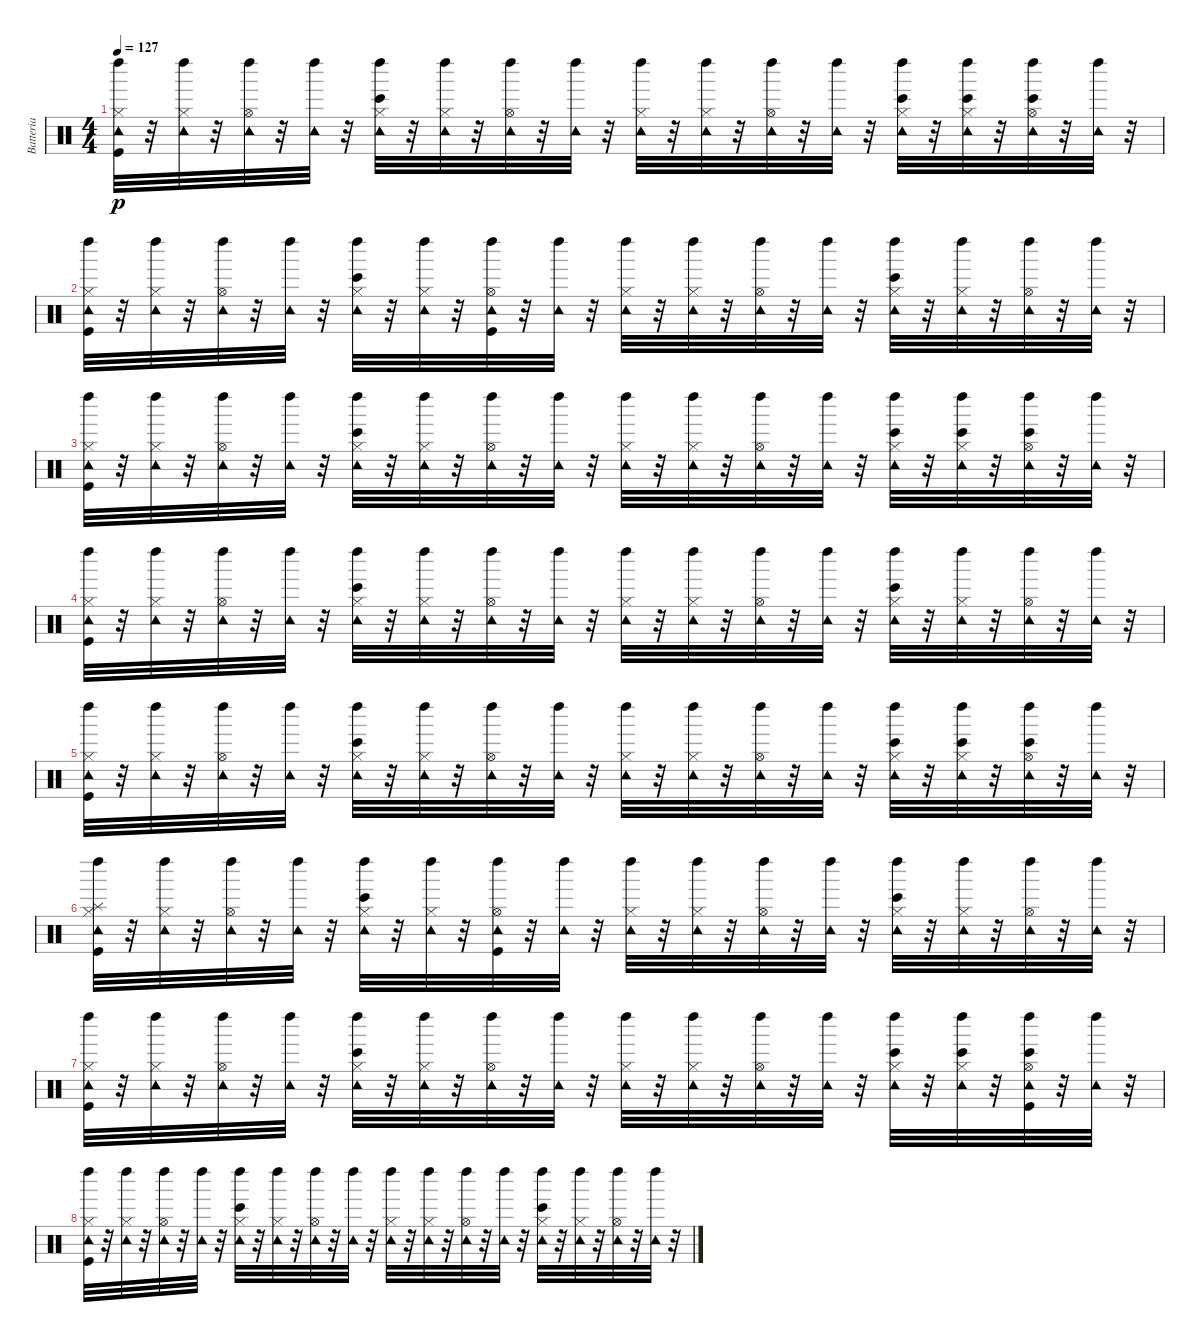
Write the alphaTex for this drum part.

\track ("Batteria" "Batteria") {instrument percussion}
\staff {score}
\articulation defaults
\ts (4 4)
\tempo 127
\clef neutral
\ks c
("Kick (hit)" "Hi-Hat (closed)" "Tambourine (hit)" "Left Maraca (hit)").32{dy p} r.32 ("Hi-Hat (closed)" "Tambourine (hit)" "Left Maraca (hit)").32 r.32 ("Hi-Hat (open)" "Tambourine (hit)" "Left Maraca (hit)").32 r.32 ("Tambourine (hit)" "Left Maraca (hit)").32 r.32 ("Bongo High (hit)" "Hi-Hat (closed)" "Tambourine (hit)" "Left Maraca (hit)").32 r.32 ("Hi-Hat (closed)" "Tambourine (hit)" "Left Maraca (hit)").32 r.32 ("Hi-Hat (open)" "Tambourine (hit)" "Left Maraca (hit)").32 r.32 ("Tambourine (hit)" "Left Maraca (hit)").32 r.32 ("Hi-Hat (closed)" "Tambourine (hit)" "Left Maraca (hit)").32 r.32 ("Hi-Hat (closed)" "Tambourine (hit)" "Left Maraca (hit)").32 r.32 ("Hi-Hat (open)" "Tambourine (hit)" "Left Maraca (hit)").32 r.32 ("Tambourine (hit)" "Left Maraca (hit)").32 r.32 ("Bongo High (hit)" "Hi-Hat (closed)" "Tambourine (hit)" "Left Maraca (hit)").32 r.32 ("Bongo High (hit)" "Hi-Hat (closed)" "Tambourine (hit)" "Left Maraca (hit)").32 r.32 ("Bongo High (hit)" "Hi-Hat (open)" "Tambourine (hit)" "Left Maraca (hit)").32 r.32 ("Tambourine (hit)" "Left Maraca (hit)").32 r.32 |
("Kick (hit)" "Hi-Hat (closed)" "Tambourine (hit)" "Left Maraca (hit)").32 r.32 ("Hi-Hat (closed)" "Tambourine (hit)" "Left Maraca (hit)").32 r.32 ("Hi-Hat (open)" "Tambourine (hit)" "Left Maraca (hit)").32 r.32 ("Tambourine (hit)" "Left Maraca (hit)").32 r.32 ("Bongo High (hit)" "Hi-Hat (closed)" "Tambourine (hit)" "Left Maraca (hit)").32 r.32 ("Hi-Hat (closed)" "Tambourine (hit)" "Left Maraca (hit)").32 r.32 ("Kick (hit)" "Hi-Hat (open)" "Tambourine (hit)" "Left Maraca (hit)").32 r.32 ("Tambourine (hit)" "Left Maraca (hit)").32 r.32 ("Hi-Hat (closed)" "Tambourine (hit)" "Left Maraca (hit)").32 r.32 ("Hi-Hat (closed)" "Tambourine (hit)" "Left Maraca (hit)").32 r.32 ("Hi-Hat (open)" "Tambourine (hit)" "Left Maraca (hit)").32 r.32 ("Tambourine (hit)" "Left Maraca (hit)").32 r.32 ("Bongo High (hit)" "Hi-Hat (closed)" "Tambourine (hit)" "Left Maraca (hit)").32 r.32 ("Hi-Hat (closed)" "Tambourine (hit)" "Left Maraca (hit)").32 r.32 ("Hi-Hat (open)" "Tambourine (hit)" "Left Maraca (hit)").32 r.32 ("Tambourine (hit)" "Left Maraca (hit)").32 r.32 |
("Kick (hit)" "Hi-Hat (closed)" "Tambourine (hit)" "Left Maraca (hit)").32 r.32 ("Hi-Hat (closed)" "Tambourine (hit)" "Left Maraca (hit)").32 r.32 ("Hi-Hat (open)" "Tambourine (hit)" "Left Maraca (hit)").32 r.32 ("Tambourine (hit)" "Left Maraca (hit)").32 r.32 ("Bongo High (hit)" "Hi-Hat (closed)" "Tambourine (hit)" "Left Maraca (hit)").32 r.32 ("Hi-Hat (closed)" "Tambourine (hit)" "Left Maraca (hit)").32 r.32 ("Hi-Hat (open)" "Tambourine (hit)" "Left Maraca (hit)").32 r.32 ("Tambourine (hit)" "Left Maraca (hit)").32 r.32 ("Hi-Hat (closed)" "Tambourine (hit)" "Left Maraca (hit)").32 r.32 ("Hi-Hat (closed)" "Tambourine (hit)" "Left Maraca (hit)").32 r.32 ("Hi-Hat (open)" "Tambourine (hit)" "Left Maraca (hit)").32 r.32 ("Tambourine (hit)" "Left Maraca (hit)").32 r.32 ("Bongo High (hit)" "Hi-Hat (closed)" "Tambourine (hit)" "Left Maraca (hit)").32 r.32 ("Bongo High (hit)" "Hi-Hat (closed)" "Tambourine (hit)" "Left Maraca (hit)").32 r.32 ("Bongo High (hit)" "Hi-Hat (open)" "Tambourine (hit)" "Left Maraca (hit)").32 r.32 ("Tambourine (hit)" "Left Maraca (hit)").32 r.32 |
("Kick (hit)" "Hi-Hat (closed)" "Tambourine (hit)" "Left Maraca (hit)").32 r.32 ("Hi-Hat (closed)" "Tambourine (hit)" "Left Maraca (hit)").32 r.32 ("Hi-Hat (open)" "Tambourine (hit)" "Left Maraca (hit)").32 r.32 ("Tambourine (hit)" "Left Maraca (hit)").32 r.32 ("Bongo High (hit)" "Hi-Hat (closed)" "Tambourine (hit)" "Left Maraca (hit)").32 r.32 ("Hi-Hat (closed)" "Tambourine (hit)" "Left Maraca (hit)").32 r.32 ("Hi-Hat (open)" "Tambourine (hit)" "Left Maraca (hit)").32 r.32 ("Tambourine (hit)" "Left Maraca (hit)").32 r.32 ("Hi-Hat (closed)" "Tambourine (hit)" "Left Maraca (hit)").32 r.32 ("Hi-Hat (closed)" "Tambourine (hit)" "Left Maraca (hit)").32 r.32 ("Hi-Hat (open)" "Tambourine (hit)" "Left Maraca (hit)").32 r.32 ("Tambourine (hit)" "Left Maraca (hit)").32 r.32 ("Bongo High (hit)" "Hi-Hat (closed)" "Tambourine (hit)" "Left Maraca (hit)").32 r.32 ("Hi-Hat (closed)" "Tambourine (hit)" "Left Maraca (hit)").32 r.32 ("Hi-Hat (open)" "Tambourine (hit)" "Left Maraca (hit)").32 r.32 ("Tambourine (hit)" "Left Maraca (hit)").32 r.32 |
("Kick (hit)" "Hi-Hat (closed)" "Tambourine (hit)" "Left Maraca (hit)").32 r.32 ("Hi-Hat (closed)" "Tambourine (hit)" "Left Maraca (hit)").32 r.32 ("Hi-Hat (open)" "Tambourine (hit)" "Left Maraca (hit)").32 r.32 ("Tambourine (hit)" "Left Maraca (hit)").32 r.32 ("Bongo High (hit)" "Hi-Hat (closed)" "Tambourine (hit)" "Left Maraca (hit)").32 r.32 ("Hi-Hat (closed)" "Tambourine (hit)" "Left Maraca (hit)").32 r.32 ("Hi-Hat (open)" "Tambourine (hit)" "Left Maraca (hit)").32 r.32 ("Tambourine (hit)" "Left Maraca (hit)").32 r.32 ("Hi-Hat (closed)" "Tambourine (hit)" "Left Maraca (hit)").32 r.32 ("Hi-Hat (closed)" "Tambourine (hit)" "Left Maraca (hit)").32 r.32 ("Hi-Hat (open)" "Tambourine (hit)" "Left Maraca (hit)").32 r.32 ("Tambourine (hit)" "Left Maraca (hit)").32 r.32 ("Bongo High (hit)" "Hi-Hat (closed)" "Tambourine (hit)" "Left Maraca (hit)").32 r.32 ("Bongo High (hit)" "Hi-Hat (closed)" "Tambourine (hit)" "Left Maraca (hit)").32 r.32 ("Bongo High (hit)" "Hi-Hat (open)" "Tambourine (hit)" "Left Maraca (hit)").32 r.32 ("Tambourine (hit)" "Left Maraca (hit)").32 r.32 |
("Kick (hit)" "Hi-Hat (closed)" "Tambourine (hit)" "Splash (hit)" "Left Maraca (hit)").32 r.32 ("Hi-Hat (closed)" "Tambourine (hit)" "Left Maraca (hit)").32 r.32 ("Hi-Hat (open)" "Tambourine (hit)" "Left Maraca (hit)").32 r.32 ("Tambourine (hit)" "Left Maraca (hit)").32 r.32 ("Bongo High (hit)" "Hi-Hat (closed)" "Tambourine (hit)" "Left Maraca (hit)").32 r.32 ("Hi-Hat (closed)" "Tambourine (hit)" "Left Maraca (hit)").32 r.32 ("Kick (hit)" "Hi-Hat (open)" "Tambourine (hit)" "Left Maraca (hit)").32 r.32 ("Tambourine (hit)" "Left Maraca (hit)").32 r.32 ("Hi-Hat (closed)" "Tambourine (hit)" "Left Maraca (hit)").32 r.32 ("Hi-Hat (closed)" "Tambourine (hit)" "Left Maraca (hit)").32 r.32 ("Hi-Hat (open)" "Tambourine (hit)" "Left Maraca (hit)").32 r.32 ("Tambourine (hit)" "Left Maraca (hit)").32 r.32 ("Bongo High (hit)" "Hi-Hat (closed)" "Tambourine (hit)" "Left Maraca (hit)").32 r.32 ("Hi-Hat (closed)" "Tambourine (hit)" "Left Maraca (hit)").32 r.32 ("Hi-Hat (open)" "Tambourine (hit)" "Left Maraca (hit)").32 r.32 ("Tambourine (hit)" "Left Maraca (hit)").32 r.32 |
("Kick (hit)" "Hi-Hat (closed)" "Tambourine (hit)" "Left Maraca (hit)").32 r.32 ("Hi-Hat (closed)" "Tambourine (hit)" "Left Maraca (hit)").32 r.32 ("Hi-Hat (open)" "Tambourine (hit)" "Left Maraca (hit)").32 r.32 ("Tambourine (hit)" "Left Maraca (hit)").32 r.32 ("Bongo High (hit)" "Hi-Hat (closed)" "Tambourine (hit)" "Left Maraca (hit)").32 r.32 ("Hi-Hat (closed)" "Tambourine (hit)" "Left Maraca (hit)").32 r.32 ("Hi-Hat (open)" "Tambourine (hit)" "Left Maraca (hit)").32 r.32 ("Tambourine (hit)" "Left Maraca (hit)").32 r.32 ("Hi-Hat (closed)" "Tambourine (hit)" "Left Maraca (hit)").32 r.32 ("Hi-Hat (closed)" "Tambourine (hit)" "Left Maraca (hit)").32 r.32 ("Hi-Hat (open)" "Tambourine (hit)" "Left Maraca (hit)").32 r.32 ("Tambourine (hit)" "Left Maraca (hit)").32 r.32 ("Bongo High (hit)" "Hi-Hat (closed)" "Tambourine (hit)" "Left Maraca (hit)").32 r.32 ("Bongo High (hit)" "Hi-Hat (closed)" "Tambourine (hit)" "Left Maraca (hit)").32 r.32 ("Bongo High (hit)" "Kick (hit)" "Hi-Hat (open)" "Tambourine (hit)" "Left Maraca (hit)").32 r.32 ("Tambourine (hit)" "Left Maraca (hit)").32 r.32 |
("Kick (hit)" "Hi-Hat (closed)" "Tambourine (hit)" "Left Maraca (hit)").32 r.32 ("Hi-Hat (closed)" "Tambourine (hit)" "Left Maraca (hit)").32 r.32 ("Hi-Hat (open)" "Tambourine (hit)" "Left Maraca (hit)").32 r.32 ("Tambourine (hit)" "Left Maraca (hit)").32 r.32 ("Bongo High (hit)" "Hi-Hat (closed)" "Tambourine (hit)" "Left Maraca (hit)").32 r.32 ("Hi-Hat (closed)" "Tambourine (hit)" "Left Maraca (hit)").32 r.32 ("Hi-Hat (open)" "Tambourine (hit)" "Left Maraca (hit)").32 r.32 ("Tambourine (hit)" "Left Maraca (hit)").32 r.32 ("Hi-Hat (closed)" "Tambourine (hit)" "Left Maraca (hit)").32 r.32 ("Hi-Hat (closed)" "Tambourine (hit)" "Left Maraca (hit)").32 r.32 ("Hi-Hat (open)" "Tambourine (hit)" "Left Maraca (hit)").32 r.32 ("Tambourine (hit)" "Left Maraca (hit)").32 r.32 ("Bongo High (hit)" "Hi-Hat (closed)" "Tambourine (hit)" "Left Maraca (hit)").32 r.32 ("Hi-Hat (closed)" "Tambourine (hit)" "Left Maraca (hit)").32 r.32 ("Hi-Hat (open)" "Tambourine (hit)" "Left Maraca (hit)").32 r.32 ("Tambourine (hit)" "Left Maraca (hit)").32 r.32
